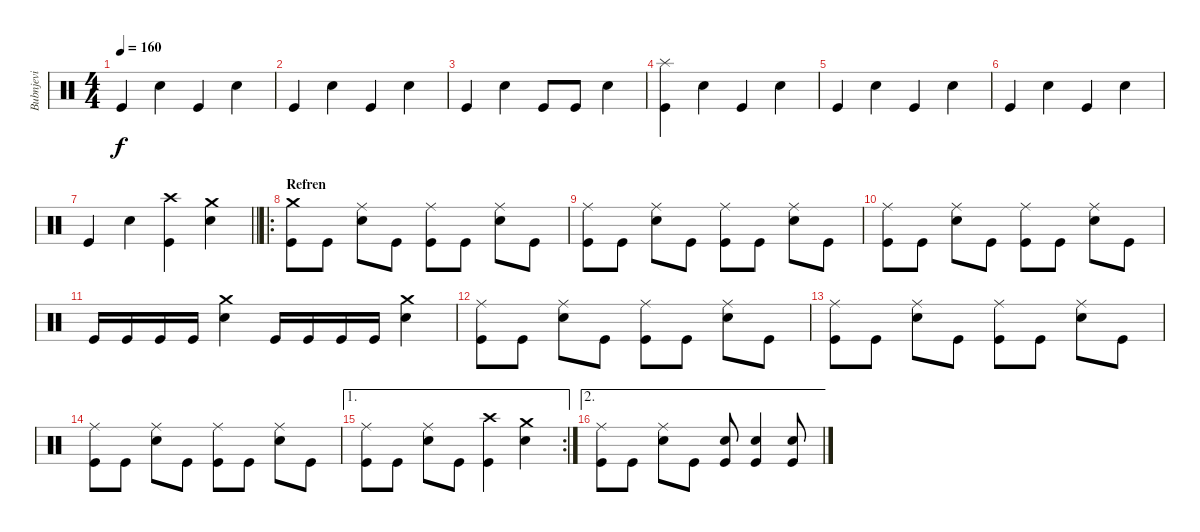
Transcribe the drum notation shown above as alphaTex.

\track ("Bubnjevi" "Bubnjevi") {instrument percussion}
\staff {score}
\articulation defaults
\ts (4 4)
\tempo 160
\clef neutral
\ks c "Kick (hit)".4{dy f} "Snare (hit) 2".4 "Kick (hit)".4 "Snare (hit) 2".4
|
"Kick (hit)".4 "Snare (hit) 2".4 "Kick (hit)".4 "Snare (hit) 2".4 |
"Kick (hit)".4 "Snare (hit) 2".4 "Kick (hit)".8 "Kick (hit)".8 "Snare (hit) 2".4 |
("Splash (hit)" "Kick (hit)").4 "Snare (hit) 2".4 "Kick (hit)".4 "Snare (hit) 2".4 |
"Kick (hit)".4 "Snare (hit) 2".4 "Kick (hit)".4 "Snare (hit) 2".4 |
"Kick (hit)".4 "Snare (hit) 2".4 "Kick (hit)".4 "Snare (hit) 2".4 |
\barLineRight lightlight "Kick (hit)".4 "Snare (hit) 2".4
("Kick (hit)" "Crash high (hit)").4 ("Snare (hit) 2" "Crash medium (hit)").4 |
\ro
\section ("" "Refren")
("Kick (hit)" "Crash medium (hit)").8 "Kick (hit)".8 ("Snare (hit) 2" "Ride (middle)").8 "Kick (hit)".8 ("Kick (hit)" "Ride (middle)").8 "Kick (hit)".8 ("Snare (hit) 2" "Ride (middle)").8 "Kick (hit)".8 |
("Kick (hit)" "Ride (middle)").8 "Kick (hit)".8 ("Snare (hit) 2" "Ride (middle)").8 "Kick (hit)".8 ("Kick (hit)" "Ride (middle)").8 "Kick (hit)".8 ("Snare (hit) 2" "Ride (middle)").8 "Kick (hit)".8 |
("Kick (hit)" "Ride (middle)").8 "Kick (hit)".8 ("Snare (hit) 2" "Ride (middle)").8 "Kick (hit)".8 ("Kick (hit)" "Ride (middle)").8 "Kick (hit)".8 ("Snare (hit) 2" "Ride (middle)").8 "Kick (hit)".8 |
"Kick (hit)".16 "Kick (hit)".16 "Kick (hit)".16 "Kick (hit)".16 ("Snare (hit) 2" "Crash medium (hit)").4 "Kick (hit)".16 "Kick (hit)".16 "Kick (hit)".16 "Kick (hit)".16 ("Snare (hit) 2" "Crash medium (hit)").4 |
("Kick (hit)" "Ride (middle)").8 "Kick (hit)".8 ("Snare (hit) 2" "Ride (middle)").8 "Kick (hit)".8 ("Kick (hit)" "Ride (middle)").8 "Kick (hit)".8 ("Snare (hit) 2" "Ride (middle)").8 "Kick (hit)".8 |
("Kick (hit)" "Ride (middle)").8 "Kick (hit)".8 ("Snare (hit) 2" "Ride (middle)").8 "Kick (hit)".8 ("Kick (hit)" "Ride (middle)").8 "Kick (hit)".8 ("Snare (hit) 2" "Ride (middle)").8 "Kick (hit)".8 |
("Kick (hit)" "Ride (middle)").8 "Kick (hit)".8 ("Snare (hit) 2" "Ride (middle)").8 "Kick (hit)".8 ("Kick (hit)" "Ride (middle)").8 "Kick (hit)".8 ("Snare (hit) 2" "Ride (middle)").8 "Kick (hit)".8 |
\ae 1
\rc 2
("Kick (hit)" "Ride (middle)").8 "Kick (hit)".8 ("Snare (hit) 2" "Ride (middle)").8 "Kick (hit)".8 ("Kick (hit)" "Crash high (hit)").4 ("Snare (hit) 2" "Crash medium (hit)").4 |
\ae 2
("Kick (hit)" "Ride (middle)").8 "Kick (hit)".8 ("Snare (hit) 2" "Ride (middle)").8 "Kick (hit)".8 ("Kick (hit)" "Snare (hit) 2").8 ("Snare (hit) 2" "Kick (hit)").4 ("Kick (hit)" "Snare (hit) 2").8
